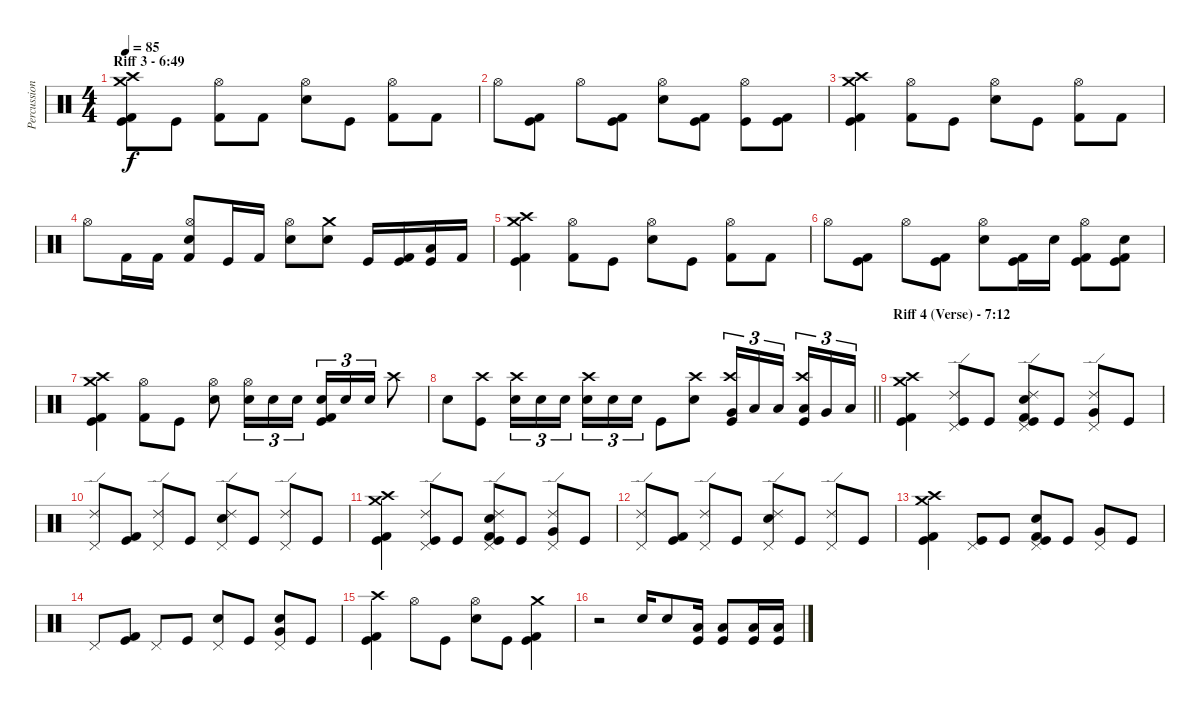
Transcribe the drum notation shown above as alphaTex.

\track ("Percussion" "Percussion") {instrument percussion}
\staff {score}
\articulation defaults
\ts (4 4)
\section ("" "Riff 3 - 6:49")
\tempo 85
\clef neutral
\ks c
("Kick (hit)" "Kick (hit) 2" "Crash high (hit)" "Crash medium (hit)").8{dy f} "Kick (hit)".8 ("Kick (hit) 2" "Hi-Hat (open)").8 "Kick (hit) 2".8 ("Snare (hit) 2" "Hi-Hat (open)").8 "Kick (hit)".8 ("Kick (hit) 2" "Hi-Hat (open)").8 "Kick (hit) 2".8 |
"Hi-Hat (open)".8 ("Kick (hit)" "Kick (hit) 2").8 "Hi-Hat (open)".8 ("Kick (hit)" "Kick (hit) 2").8 ("Snare (hit) 2" "Hi-Hat (open)").8 ("Kick (hit)" "Kick (hit) 2").8 ("Kick (hit)" "Hi-Hat (open)").8 ("Kick (hit)" "Kick (hit) 2").8 |
("Kick (hit)" "Kick (hit) 2" "Crash high (hit)" "Crash medium (hit)").4 ("Kick (hit) 2" "Hi-Hat (open)").8 "Kick (hit)".8 ("Snare (hit) 2" "Hi-Hat (open)").8 "Kick (hit)".8 ("Kick (hit) 2" "Hi-Hat (open)").8 "Kick (hit) 2".8 |
"Hi-Hat (open)".8 "Kick (hit) 2".16 "Kick (hit) 2".16 ("Kick (hit) 2" "Snare (hit) 2" "Hi-Hat (open)").8 "Kick (hit)".16 "Kick (hit) 2".16 ("Snare (hit) 2" "Hi-Hat (open)").8 ("Snare (hit) 2" "Crash medium (hit)").8 "Kick (hit)".16 ("Kick (hit)" "Kick (hit) 2").16 ("Kick (hit)" "Low Floor Tom (hit)").16 "Kick (hit) 2".16 |
("Kick (hit)" "Kick (hit) 2" "Crash high (hit)" "Crash medium (hit)").4 ("Kick (hit) 2" "Hi-Hat (open)").8 "Kick (hit)".8 ("Snare (hit) 2" "Hi-Hat (open)").8 "Kick (hit)".8 ("Kick (hit) 2" "Hi-Hat (open)").8 "Kick (hit) 2".8 |
"Hi-Hat (open)".8 ("Kick (hit)" "Kick (hit) 2").8 "Hi-Hat (open)".8 ("Kick (hit)" "Kick (hit) 2").8 ("Snare (hit) 2" "Hi-Hat (open)").8 ("Kick (hit)" "Kick (hit) 2").16 "Snare (hit) 2".16 ("Kick (hit)" "Kick (hit) 2" "Hi-Hat (open)").8 ("Kick (hit)" "Kick (hit) 2" "Snare (hit) 2").8 |
("Kick (hit)" "Kick (hit) 2" "Crash high (hit)" "Crash medium (hit)").4 ("Kick (hit) 2" "Hi-Hat (open)").8 "Kick (hit)".8 ("Snare (hit) 2" "Hi-Hat (open)").8 ("Snare (hit) 2" "Hi-Hat (open)").16{tu (3 2)} "Snare (hit) 2".16{tu (3 2)} "Snare (hit) 2".16{tu (3 2)} ("Kick (hit)" "Kick (hit) 2" "Snare (hit) 2").16{tu (3 2)} "Snare (hit) 2".16{tu (3 2)} "Snare (hit) 2".16{tu (3 2)} "Crash high (hit)".8 |
\barLineRight lightlight "Snare (hit) 2".8
("Kick (hit)" "Crash high (hit)").8 ("Snare (hit) 2" "Crash high (hit)").16{tu (3 2)} "Snare (hit) 2".16{tu (3 2)} "Snare (hit) 2".16{tu (3 2) beam splitsecondary} ("Snare (hit) 2" "Crash high (hit)").16{tu (3 2)} "Snare (hit) 2".16{tu (3 2)} "Snare (hit) 2".16{tu (3 2)} "Kick (hit)".8 ("Snare (hit) 2" "Crash high (hit)").8 ("Kick (hit)" "Very Low Tom (hit)" "Crash high (hit)").16{tu (3 2)} "Low Floor Tom (hit)".16{tu (3 2)} "Low Tom (hit)".16{tu (3 2) beam splitsecondary} ("Kick (hit)" "Low Floor Tom (hit)" "Crash high (hit)").16{tu (3 2)} "Very Low Tom (hit)".16{tu (3 2)} "Low Tom (hit)".16{tu (3 2)} |
\section ("" "Riff 4 (Verse) - 7:12")
("Kick (hit)" "Kick (hit) 2" "Crash high (hit)" "Crash medium (hit)").4 ("Kick (hit)" "Ride (edge) 2" "Pedal Hi-Hat (hit)").8 "Kick (hit)".8 ("Kick (hit)" "Kick (hit) 2" "Snare (hit) 2" "Ride (edge) 2" "Pedal Hi-Hat (hit)").8 "Kick (hit)".8 ("Very Low Tom (hit)" "Ride (edge) 2" "Pedal Hi-Hat (hit)").8 "Kick (hit)".8 |
("Ride (edge) 2" "Pedal Hi-Hat (hit)").8 ("Kick (hit)" "Kick (hit) 2").8 ("Ride (edge) 2" "Pedal Hi-Hat (hit)").8 "Kick (hit)".8 ("Snare (hit) 2" "Ride (edge) 2" "Pedal Hi-Hat (hit)").8 "Kick (hit)".8 ("Ride (edge) 2" "Pedal Hi-Hat (hit)").8 "Kick (hit)".8 |
("Kick (hit)" "Kick (hit) 2" "Crash high (hit)" "Crash medium (hit)").4 ("Kick (hit)" "Ride (edge) 2" "Pedal Hi-Hat (hit)").8 "Kick (hit)".8 ("Kick (hit)" "Kick (hit) 2" "Snare (hit) 2" "Ride (edge) 2" "Pedal Hi-Hat (hit)").8 "Kick (hit)".8 ("Very Low Tom (hit)" "Ride (edge) 2" "Pedal Hi-Hat (hit)").8 "Kick (hit)".8 |
("Ride (edge) 2" "Pedal Hi-Hat (hit)").8 ("Kick (hit)" "Kick (hit) 2").8 ("Ride (edge) 2" "Pedal Hi-Hat (hit)").8 "Kick (hit)".8 ("Snare (hit) 2" "Ride (edge) 2" "Pedal Hi-Hat (hit)").8 "Kick (hit)".8 ("Ride (edge) 2" "Pedal Hi-Hat (hit)").8 "Kick (hit)".8 |
("Kick (hit)" "Kick (hit) 2" "Crash high (hit)" "Crash medium (hit)").4 ("Kick (hit)" "Pedal Hi-Hat (hit)").8 "Kick (hit)".8 ("Kick (hit)" "Kick (hit) 2" "Snare (hit) 2" "Pedal Hi-Hat (hit)").8 "Kick (hit)".8 ("Very Low Tom (hit)" "Pedal Hi-Hat (hit)").8 "Kick (hit)".8 |
"Pedal Hi-Hat (hit)".8 ("Kick (hit)" "Kick (hit) 2").8 "Pedal Hi-Hat (hit)".8 "Kick (hit)".8 ("Snare (hit) 2" "Pedal Hi-Hat (hit)").8 "Kick (hit)".8 ("Very Low Tom (hit)" "Snare (hit) 2" "Pedal Hi-Hat (hit)").8 "Kick (hit)".8 |
("Kick (hit)" "Kick (hit) 2" "Crash high (hit)").4 "Hi-Hat (open)".8 "Kick (hit)".8 ("Snare (hit) 2" "Hi-Hat (open)").8 "Kick (hit)".8 ("Kick (hit)" "Kick (hit) 2" "Crash medium (hit)").4 |
r.2 "Snare (hit) 2".16 "Snare (hit) 2".8 ("Kick (hit)" "Low Floor Tom (hit)").16 ("Kick (hit)" "Low Floor Tom (hit)").8 ("Kick (hit)" "Low Tom (hit)").16 ("Kick (hit)" "Low Tom (hit)").16
